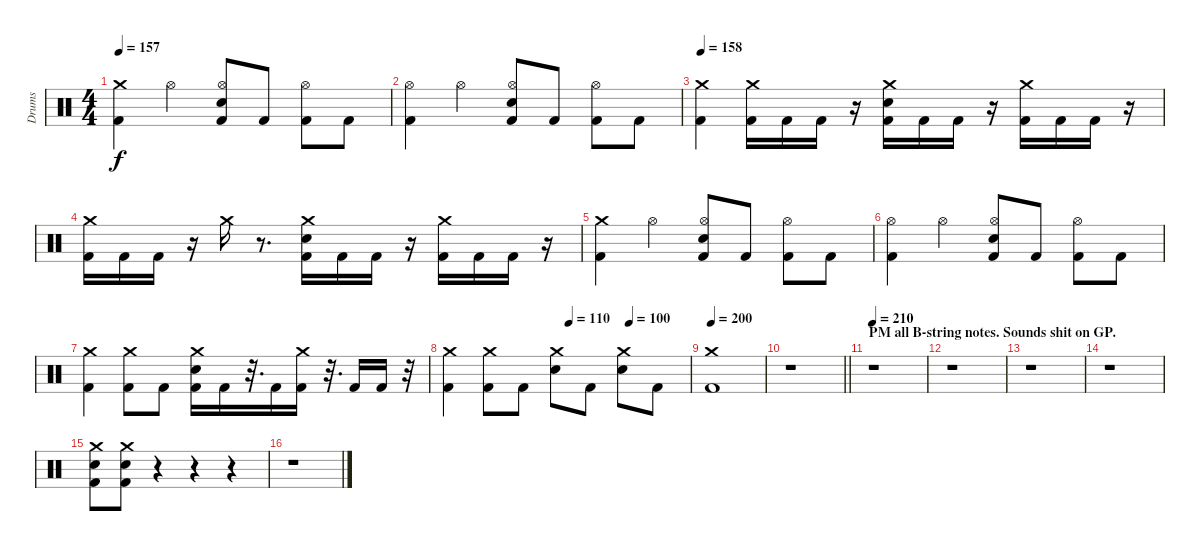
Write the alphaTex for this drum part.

\track ("Drums" "Drums") {instrument percussion}
\staff {score}
\articulation defaults
\ts (4 4)
\tempo 157
\clef neutral
\ks c
("Crash medium (hit)" "Kick (hit) 2").4{dy f} "Hi-Hat (open)".4 ("Hi-Hat (open)" "Electric Snare (hit)" "Kick (hit) 2").8 "Kick (hit) 2".8 ("Hi-Hat (open)" "Kick (hit) 2").8 "Kick (hit) 2".8 |
("Hi-Hat (open)" "Kick (hit) 2").4 "Hi-Hat (open)".4 ("Hi-Hat (open)" "Electric Snare (hit)" "Kick (hit) 2").8 "Kick (hit) 2".8 ("Hi-Hat (open)" "Kick (hit) 2").8 "Kick (hit) 2".8 |
\tempo 158
("Crash medium (hit)" "Kick (hit) 2").4 ("Crash medium (hit)" "Kick (hit) 2").16 "Kick (hit) 2".16 "Kick (hit) 2".16 r.16 ("Crash medium (hit)" "Electric Snare (hit)" "Kick (hit) 2").16 "Kick (hit) 2".16 "Kick (hit) 2".16 r.16 ("Crash medium (hit)" "Kick (hit) 2").16 "Kick (hit) 2".16 "Kick (hit) 2".16 r.16 |
("Crash medium (hit)" "Kick (hit) 2").16 "Kick (hit) 2".16 "Kick (hit) 2".16 r.16 "Crash medium (hit)".16 r.8{d} ("Crash medium (hit)" "Electric Snare (hit)" "Kick (hit) 2").16 "Kick (hit) 2".16 "Kick (hit) 2".16 r.16 ("Crash medium (hit)" "Kick (hit) 2").16 "Kick (hit) 2".16 "Kick (hit) 2".16 r.16 |
("Crash medium (hit)" "Kick (hit) 2").4 "Hi-Hat (open)".4 ("Hi-Hat (open)" "Electric Snare (hit)" "Kick (hit) 2").8 "Kick (hit) 2".8 ("Hi-Hat (open)" "Kick (hit) 2").8 "Kick (hit) 2".8 |
("Hi-Hat (open)" "Kick (hit) 2").4 "Hi-Hat (open)".4 ("Hi-Hat (open)" "Electric Snare (hit)" "Kick (hit) 2").8 "Kick (hit) 2".8 ("Hi-Hat (open)" "Kick (hit) 2").8 "Kick (hit) 2".8 |
("Crash medium (hit)" "Kick (hit) 2").4 ("Crash medium (hit)" "Kick (hit) 2").8 "Kick (hit) 2".8 ("Crash medium (hit)" "Electric Snare (hit)" "Kick (hit) 2").16 "Kick (hit) 2".16 r.32{d} "Kick (hit) 2".16 ("Crash medium (hit)" "Kick (hit) 2").16 r.32{d} "Kick (hit) 2".16 "Kick (hit) 2".16 r.32 |
\tempo (110 0.5)
\tempo (100 0.75)
("Crash medium (hit)" "Kick (hit) 2").4 ("Crash medium (hit)" "Kick (hit) 2").8 "Kick (hit) 2".8 ("Crash medium (hit)" "Electric Snare (hit)").8 "Kick (hit) 2".8 ("Crash medium (hit)" "Electric Snare (hit)").8 "Kick (hit) 2".8 |
\tempo 200
("Crash medium (hit)" "Kick (hit) 2").1 |
\barLineRight lightlight
r.1 |
\section ("" "PM all B-string notes. Sounds shit on GP.")
\tempo 210
r.1 |
r.1 |
r.1 |
r.1 |
("Crash medium (hit)" "Electric Snare (hit)" "Kick (hit) 2").8 ("Crash medium (hit)" "Electric Snare (hit)" "Kick (hit) 2").8 r.4 r.4 r.4 |
r.1
